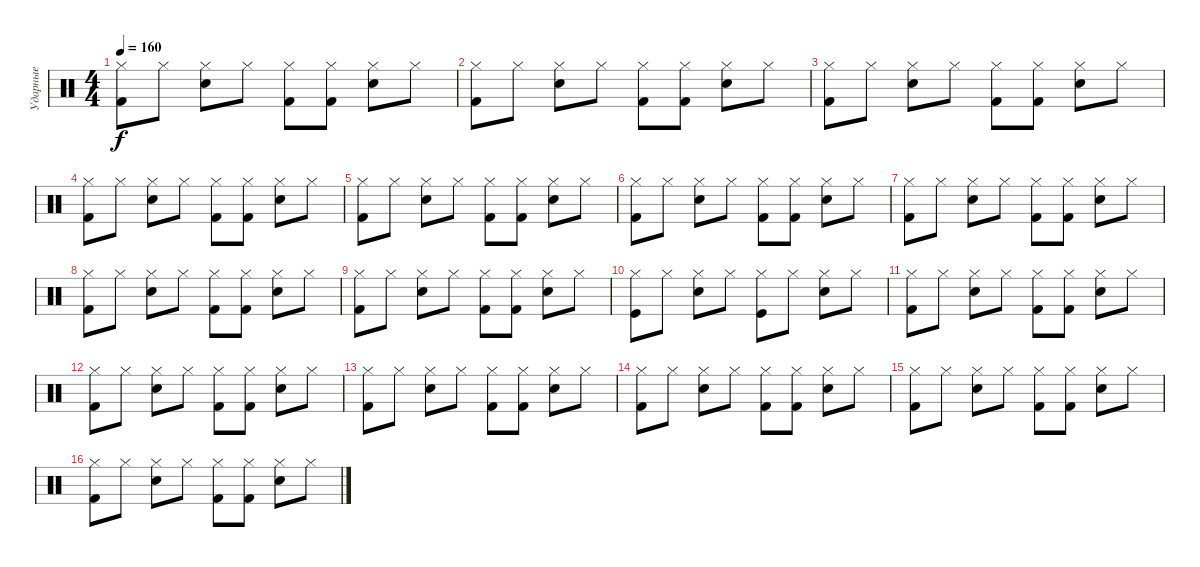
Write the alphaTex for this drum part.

\track ("Ударные" "Ударные") {instrument percussion}
\staff {score}
\articulation defaults
\ts (4 4)
\tempo 160
\clef neutral
\ks c
("Kick (hit) 2" "Hi-Hat (closed)").8{dy f} "Hi-Hat (closed)".8 ("Electric Snare (hit)" "Hi-Hat (closed)").8 "Hi-Hat (closed)".8 ("Kick (hit) 2" "Hi-Hat (closed)").8 ("Kick (hit) 2" "Hi-Hat (closed)").8 ("Electric Snare (hit)" "Hi-Hat (closed)").8 "Hi-Hat (closed)".8 |
("Kick (hit) 2" "Hi-Hat (closed)").8 "Hi-Hat (closed)".8 ("Electric Snare (hit)" "Hi-Hat (closed)").8 "Hi-Hat (closed)".8 ("Kick (hit) 2" "Hi-Hat (closed)").8 ("Kick (hit) 2" "Hi-Hat (closed)").8 ("Electric Snare (hit)" "Hi-Hat (closed)").8 "Hi-Hat (closed)".8 |
("Kick (hit) 2" "Hi-Hat (closed)").8 "Hi-Hat (closed)".8 ("Electric Snare (hit)" "Hi-Hat (closed)").8 "Hi-Hat (closed)".8 ("Kick (hit) 2" "Hi-Hat (closed)").8 ("Kick (hit) 2" "Hi-Hat (closed)").8 ("Electric Snare (hit)" "Hi-Hat (closed)").8 "Hi-Hat (closed)".8 |
("Kick (hit) 2" "Hi-Hat (closed)").8 "Hi-Hat (closed)".8 ("Electric Snare (hit)" "Hi-Hat (closed)").8 "Hi-Hat (closed)".8 ("Kick (hit) 2" "Hi-Hat (closed)").8 ("Kick (hit) 2" "Hi-Hat (closed)").8 ("Electric Snare (hit)" "Hi-Hat (closed)").8 "Hi-Hat (closed)".8 |
("Kick (hit) 2" "Hi-Hat (closed)").8 "Hi-Hat (closed)".8 ("Electric Snare (hit)" "Hi-Hat (closed)").8 "Hi-Hat (closed)".8 ("Kick (hit) 2" "Hi-Hat (closed)").8 ("Kick (hit) 2" "Hi-Hat (closed)").8 ("Electric Snare (hit)" "Hi-Hat (closed)").8 "Hi-Hat (closed)".8 |
("Kick (hit) 2" "Hi-Hat (closed)").8 "Hi-Hat (closed)".8 ("Electric Snare (hit)" "Hi-Hat (closed)").8 "Hi-Hat (closed)".8 ("Kick (hit) 2" "Hi-Hat (closed)").8 ("Kick (hit) 2" "Hi-Hat (closed)").8 ("Electric Snare (hit)" "Hi-Hat (closed)").8 "Hi-Hat (closed)".8 |
("Kick (hit) 2" "Hi-Hat (closed)").8 "Hi-Hat (closed)".8 ("Electric Snare (hit)" "Hi-Hat (closed)").8 "Hi-Hat (closed)".8 ("Kick (hit) 2" "Hi-Hat (closed)").8 ("Kick (hit) 2" "Hi-Hat (closed)").8 ("Electric Snare (hit)" "Hi-Hat (closed)").8 "Hi-Hat (closed)".8 |
("Kick (hit) 2" "Hi-Hat (closed)").8 "Hi-Hat (closed)".8 ("Electric Snare (hit)" "Hi-Hat (closed)").8 "Hi-Hat (closed)".8 ("Kick (hit) 2" "Hi-Hat (closed)").8 ("Kick (hit) 2" "Hi-Hat (closed)").8 ("Electric Snare (hit)" "Hi-Hat (closed)").8 "Hi-Hat (closed)".8 |
("Kick (hit) 2" "Hi-Hat (closed)").8 "Hi-Hat (closed)".8 ("Electric Snare (hit)" "Hi-Hat (closed)").8 "Hi-Hat (closed)".8 ("Kick (hit) 2" "Hi-Hat (closed)").8 ("Kick (hit) 2" "Hi-Hat (closed)").8 ("Electric Snare (hit)" "Hi-Hat (closed)").8 "Hi-Hat (closed)".8 |
("Kick (hit)" "Hi-Hat (closed)").8 "Hi-Hat (closed)".8 ("Electric Snare (hit)" "Hi-Hat (closed)").8 "Hi-Hat (closed)".8 ("Kick (hit)" "Hi-Hat (closed)").8 "Hi-Hat (closed)".8 ("Electric Snare (hit)" "Hi-Hat (closed)").8 "Hi-Hat (closed)".8 |
("Kick (hit) 2" "Hi-Hat (closed)").8 "Hi-Hat (closed)".8 ("Electric Snare (hit)" "Hi-Hat (closed)").8 "Hi-Hat (closed)".8 ("Kick (hit) 2" "Hi-Hat (closed)").8 ("Kick (hit) 2" "Hi-Hat (closed)").8 ("Electric Snare (hit)" "Hi-Hat (closed)").8 "Hi-Hat (closed)".8 |
("Kick (hit) 2" "Hi-Hat (closed)").8 "Hi-Hat (closed)".8 ("Electric Snare (hit)" "Hi-Hat (closed)").8 "Hi-Hat (closed)".8 ("Kick (hit) 2" "Hi-Hat (closed)").8 ("Kick (hit) 2" "Hi-Hat (closed)").8 ("Electric Snare (hit)" "Hi-Hat (closed)").8 "Hi-Hat (closed)".8 |
("Kick (hit) 2" "Hi-Hat (closed)").8 "Hi-Hat (closed)".8 ("Electric Snare (hit)" "Hi-Hat (closed)").8 "Hi-Hat (closed)".8 ("Kick (hit) 2" "Hi-Hat (closed)").8 ("Kick (hit) 2" "Hi-Hat (closed)").8 ("Electric Snare (hit)" "Hi-Hat (closed)").8 "Hi-Hat (closed)".8 |
("Kick (hit) 2" "Hi-Hat (closed)").8 "Hi-Hat (closed)".8 ("Electric Snare (hit)" "Hi-Hat (closed)").8 "Hi-Hat (closed)".8 ("Kick (hit) 2" "Hi-Hat (closed)").8 ("Kick (hit) 2" "Hi-Hat (closed)").8 ("Electric Snare (hit)" "Hi-Hat (closed)").8 "Hi-Hat (closed)".8 |
("Kick (hit) 2" "Hi-Hat (closed)").8 "Hi-Hat (closed)".8 ("Electric Snare (hit)" "Hi-Hat (closed)").8 "Hi-Hat (closed)".8 ("Kick (hit) 2" "Hi-Hat (closed)").8 ("Kick (hit) 2" "Hi-Hat (closed)").8 ("Electric Snare (hit)" "Hi-Hat (closed)").8 "Hi-Hat (closed)".8 |
("Kick (hit) 2" "Hi-Hat (closed)").8 "Hi-Hat (closed)".8 ("Electric Snare (hit)" "Hi-Hat (closed)").8 "Hi-Hat (closed)".8 ("Kick (hit) 2" "Hi-Hat (closed)").8 ("Kick (hit) 2" "Hi-Hat (closed)").8 ("Electric Snare (hit)" "Hi-Hat (closed)").8 "Hi-Hat (closed)".8
